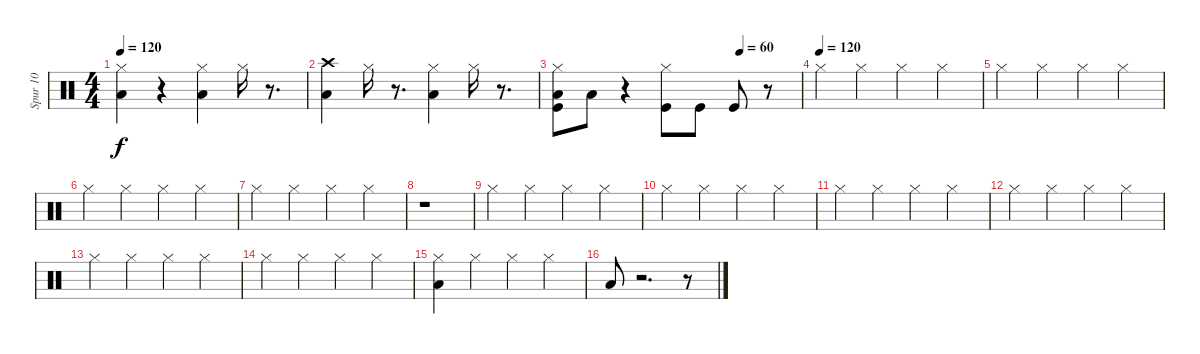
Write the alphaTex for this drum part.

\track ("Spur 10" "Spur 10") {instrument percussion}
\staff {score}
\articulation defaults
\ts (4 4)
\tempo 120
\clef neutral
\ks c
("Hi-Hat (closed)" "Low Floor Tom (hit)").4{dy f} r.4 ("Hi-Hat (closed)" "Low Tom (hit)").4 "Hi-Hat (closed)".16 r.8{d} |
("Low Floor Tom (hit)" "Crash high (hit)").4 "Hi-Hat (closed)".16 r.8{d} ("Hi-Hat (closed)" "Low Tom (hit)").4 "Hi-Hat (closed)".16 r.8{d} |
\tempo (60 0.75)
("Low Floor Tom (hit)" "Hi-Hat (closed)" "Kick (hit)").8 "Low Floor Tom (hit)".8 r.4 ("Kick (hit)" "Hi-Hat (closed)").8 "Kick (hit)".8 "Kick (hit)".8 r.8 |
\tempo (120)
"Hi-Hat (closed)".4 "Hi-Hat (closed)".4 "Hi-Hat (closed)".4 "Hi-Hat (closed)".4 |
"Hi-Hat (closed)".4 "Hi-Hat (closed)".4 "Hi-Hat (closed)".4 "Hi-Hat (closed)".4 |
"Hi-Hat (closed)".4 "Hi-Hat (closed)".4 "Hi-Hat (closed)".4 "Hi-Hat (closed)".4 |
"Hi-Hat (closed)".4 "Hi-Hat (closed)".4 "Hi-Hat (closed)".4 "Hi-Hat (closed)".4 |
r.1 |
"Hi-Hat (closed)".4 "Hi-Hat (closed)".4 "Hi-Hat (closed)".4 "Hi-Hat (closed)".4 |
"Hi-Hat (closed)".4 "Hi-Hat (closed)".4 "Hi-Hat (closed)".4 "Hi-Hat (closed)".4 |
"Hi-Hat (closed)".4 "Hi-Hat (closed)".4 "Hi-Hat (closed)".4 "Hi-Hat (closed)".4 |
"Hi-Hat (closed)".4 "Hi-Hat (closed)".4 "Hi-Hat (closed)".4 "Hi-Hat (closed)".4 |
"Hi-Hat (closed)".4 "Hi-Hat (closed)".4 "Hi-Hat (closed)".4 "Hi-Hat (closed)".4 |
"Hi-Hat (closed)".4 "Hi-Hat (closed)".4 "Hi-Hat (closed)".4 "Hi-Hat (closed)".4 |
("Hi-Hat (closed)" "Low Floor Tom (hit)").4 "Hi-Hat (closed)".4 "Hi-Hat (closed)".4 "Hi-Hat (closed)".4 |
"Low Floor Tom (hit)".8 r.2{d} r.8
